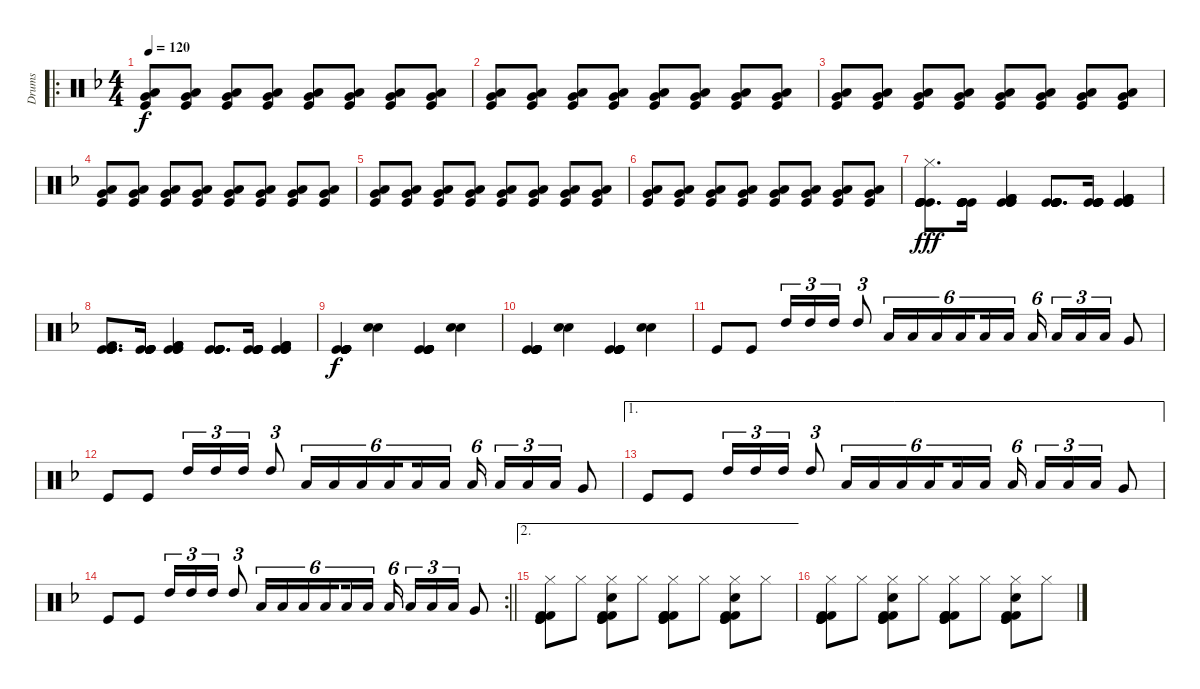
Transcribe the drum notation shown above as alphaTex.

\track ("Drums" "Drums") {instrument percussion}
\staff {score}
\articulation defaults
\ro
\ts (4 4)
\tempo 120
\clef neutral
\ks f
("Very Low Tom (hit)" "Kick (hit)" "Low Tom (hit)").8{dy f} ("Very Low Tom (hit)" "Kick (hit)" "Low Tom (hit)").8 ("Very Low Tom (hit)" "Kick (hit)" "Low Tom (hit)").8 ("Very Low Tom (hit)" "Kick (hit)" "Low Tom (hit)").8 ("Very Low Tom (hit)" "Kick (hit)" "Low Tom (hit)").8 ("Very Low Tom (hit)" "Kick (hit)" "Low Tom (hit)").8 ("Very Low Tom (hit)" "Kick (hit)" "Low Tom (hit)").8 ("Very Low Tom (hit)" "Kick (hit)" "Low Tom (hit)").8 |
("Very Low Tom (hit)" "Kick (hit)" "Low Tom (hit)").8 ("Very Low Tom (hit)" "Kick (hit)" "Low Tom (hit)").8 ("Very Low Tom (hit)" "Kick (hit)" "Low Tom (hit)").8 ("Very Low Tom (hit)" "Kick (hit)" "Low Tom (hit)").8 ("Very Low Tom (hit)" "Kick (hit)" "Low Tom (hit)").8 ("Very Low Tom (hit)" "Kick (hit)" "Low Tom (hit)").8 ("Very Low Tom (hit)" "Kick (hit)" "Low Tom (hit)").8 ("Very Low Tom (hit)" "Kick (hit)" "Low Tom (hit)").8 |
("Very Low Tom (hit)" "Kick (hit)" "Low Tom (hit)").8 ("Very Low Tom (hit)" "Kick (hit)" "Low Tom (hit)").8 ("Very Low Tom (hit)" "Kick (hit)" "Low Tom (hit)").8 ("Very Low Tom (hit)" "Kick (hit)" "Low Tom (hit)").8 ("Very Low Tom (hit)" "Kick (hit)" "Low Tom (hit)").8 ("Very Low Tom (hit)" "Kick (hit)" "Low Tom (hit)").8 ("Very Low Tom (hit)" "Kick (hit)" "Low Tom (hit)").8 ("Very Low Tom (hit)" "Kick (hit)" "Low Tom (hit)").8 |
("Very Low Tom (hit)" "Kick (hit)" "Low Tom (hit)").8 ("Very Low Tom (hit)" "Kick (hit)" "Low Tom (hit)").8 ("Very Low Tom (hit)" "Kick (hit)" "Low Tom (hit)").8 ("Very Low Tom (hit)" "Kick (hit)" "Low Tom (hit)").8 ("Very Low Tom (hit)" "Kick (hit)" "Low Tom (hit)").8 ("Very Low Tom (hit)" "Kick (hit)" "Low Tom (hit)").8 ("Very Low Tom (hit)" "Kick (hit)" "Low Tom (hit)").8 ("Very Low Tom (hit)" "Kick (hit)" "Low Tom (hit)").8 |
("Very Low Tom (hit)" "Kick (hit)" "Low Tom (hit)").8 ("Very Low Tom (hit)" "Kick (hit)" "Low Tom (hit)").8 ("Very Low Tom (hit)" "Kick (hit)" "Low Tom (hit)").8 ("Very Low Tom (hit)" "Kick (hit)" "Low Tom (hit)").8 ("Very Low Tom (hit)" "Kick (hit)" "Low Tom (hit)").8 ("Very Low Tom (hit)" "Kick (hit)" "Low Tom (hit)").8 ("Very Low Tom (hit)" "Kick (hit)" "Low Tom (hit)").8 ("Very Low Tom (hit)" "Kick (hit)" "Low Tom (hit)").8 |
("Very Low Tom (hit)" "Kick (hit)" "Low Tom (hit)").8 ("Very Low Tom (hit)" "Kick (hit)" "Low Tom (hit)").8 ("Very Low Tom (hit)" "Kick (hit)" "Low Tom (hit)").8 ("Very Low Tom (hit)" "Kick (hit)" "Low Tom (hit)").8 ("Very Low Tom (hit)" "Kick (hit)" "Low Tom (hit)").8 ("Very Low Tom (hit)" "Kick (hit)" "Low Tom (hit)").8 ("Very Low Tom (hit)" "Kick (hit)" "Low Tom (hit)").8 ("Very Low Tom (hit)" "Kick (hit)" "Low Tom (hit)").8 |
("Hi-Hat (closed)" "Kick (hit)" "Kick (hit)" "Kick (hit)" "Kick (hit)" "Kick (hit)").8{d dy fff} ("Kick (hit)" "Kick (hit)" "Kick (hit)" "Kick (hit)" "Kick (hit)" "Kick (hit)").16 ("Kick (hit)" "Kick (hit) 2" "Kick (hit)" "Kick (hit) 2" "Kick (hit)" "Kick (hit) 2").4 ("Kick (hit)" "Kick (hit)" "Kick (hit)" "Kick (hit)" "Kick (hit)" "Kick (hit)").8{d} ("Kick (hit)" "Kick (hit)" "Kick (hit)" "Kick (hit)" "Kick (hit)" "Kick (hit)").16 ("Kick (hit)" "Kick (hit) 2" "Kick (hit)" "Kick (hit) 2" "Kick (hit)" "Kick (hit) 2").4 |
("Kick (hit) 2" "Kick (hit)" "Kick (hit)" "Kick (hit)" "Kick (hit)" "Kick (hit)").8{d} ("Kick (hit)" "Kick (hit)" "Kick (hit)" "Kick (hit)" "Kick (hit)" "Kick (hit)").16 ("Kick (hit)" "Kick (hit) 2" "Kick (hit)" "Kick (hit) 2" "Kick (hit)" "Kick (hit) 2").4 ("Kick (hit)" "Kick (hit)" "Kick (hit)" "Kick (hit)" "Kick (hit)" "Kick (hit)").8{d} ("Kick (hit)" "Kick (hit)" "Kick (hit)" "Kick (hit)" "Kick (hit)" "Kick (hit)").16 ("Kick (hit)" "Kick (hit) 2" "Kick (hit)" "Kick (hit) 2" "Kick (hit)" "Kick (hit) 2").4 |
("Kick (hit)" "Kick (hit)" "Kick (hit)" "Kick (hit)" "Kick (hit)" "Kick (hit)").4{dy f} ("Snare (hit) 2" "Snare (hit) 2").4 ("Kick (hit)" "Kick (hit)" "Kick (hit)" "Kick (hit)" "Kick (hit)" "Kick (hit)").4 ("Snare (hit) 2" "Snare (hit) 2").4 |
("Kick (hit)" "Kick (hit)" "Kick (hit)" "Kick (hit)" "Kick (hit)" "Kick (hit)").4 ("Snare (hit) 2" "Snare (hit) 2").4 ("Kick (hit)" "Kick (hit)" "Kick (hit)" "Kick (hit)" "Kick (hit)" "Kick (hit)").4 ("Snare (hit) 2" "Snare (hit) 2").4 |
"Kick (hit)".8 "Kick (hit)".8 "High Tom (hit)".16{tu (3 2) beam Up} "High Tom (hit)".16{tu (3 2) beam Up} "High Tom (hit)".16{tu (3 2) beam Up} "High Tom (hit)".8{tu (3 2) beam Up} "Low Tom (hit)".16{tu (6 4) beam Up} "Low Tom (hit)".16{tu (6 4)} "Low Tom (hit)".16{tu (6 4)} "Low Tom (hit)".16{tu (6 4) beam splitsecondary} "Low Tom (hit)".16{tu (6 4)} "Low Tom (hit)".16{tu (6 4)} "Low Tom (hit)".16{tu (6 4)} "Low Tom (hit)".16{tu (3 2)} "Low Tom (hit)".16{tu (3 2)} "Low Tom (hit)".16{tu (3 2)} "Very Low Tom (hit)".8 |
"Kick (hit)".8 "Kick (hit)".8 "High Tom (hit)".16{tu (3 2) beam Up} "High Tom (hit)".16{tu (3 2) beam Up} "High Tom (hit)".16{tu (3 2) beam Up} "High Tom (hit)".8{tu (3 2) beam Up} "Low Tom (hit)".16{tu (6 4) beam Up} "Low Tom (hit)".16{tu (6 4)} "Low Tom (hit)".16{tu (6 4)} "Low Tom (hit)".16{tu (6 4) beam splitsecondary} "Low Tom (hit)".16{tu (6 4)} "Low Tom (hit)".16{tu (6 4)} "Low Tom (hit)".16{tu (6 4)} "Low Tom (hit)".16{tu (3 2)} "Low Tom (hit)".16{tu (3 2)} "Low Tom (hit)".16{tu (3 2)} "Very Low Tom (hit)".8 |
\ae 1 "Kick (hit)".8 "Kick (hit)".8 "High Tom (hit)".16{tu (3 2) beam Up} "High Tom (hit)".16{tu (3 2) beam Up} "High Tom (hit)".16{tu (3 2) beam Up} "High Tom (hit)".8{tu (3 2) beam Up} "Low Tom (hit)".16{tu (6 4) beam Up} "Low Tom (hit)".16{tu (6 4)} "Low Tom (hit)".16{tu (6 4)} "Low Tom (hit)".16{tu (6 4) beam splitsecondary} "Low Tom (hit)".16{tu (6 4)} "Low Tom (hit)".16{tu (6 4)} "Low Tom (hit)".16{tu (6 4)} "Low Tom (hit)".16{tu (3 2)} "Low Tom (hit)".16{tu (3 2)} "Low Tom (hit)".16{tu (3 2)} "Very Low Tom (hit)".8
|
\rc 2
\barLineRight lightlight "Kick (hit)".8 "Kick (hit)".8 "High Tom (hit)".16{tu (3 2) beam Up} "High Tom (hit)".16{tu (3 2) beam Up} "High Tom (hit)".16{tu (3 2) beam Up} "High Tom (hit)".8{tu (3 2) beam Up} "Low Tom (hit)".16{tu (6 4) beam Up} "Low Tom (hit)".16{tu (6 4)} "Low Tom (hit)".16{tu (6 4)} "Low Tom (hit)".16{tu (6 4) beam splitsecondary} "Low Tom (hit)".16{tu (6 4)} "Low Tom (hit)".16{tu (6 4)} "Low Tom (hit)".16{tu (6 4)} "Low Tom (hit)".16{tu (3 2)} "Low Tom (hit)".16{tu (3 2)} "Low Tom (hit)".16{tu (3 2)} "Very Low Tom (hit)".8
|
\ae 2
("Hi-Hat (closed)" "Kick (hit) 2" "Kick (hit) 2" "Kick (hit)" "Kick (hit)" "Kick (hit)").8 "Hi-Hat (closed)".8 ("Hi-Hat (closed)" "Snare (hit) 2" "Kick (hit) 2" "Kick (hit)" "Kick (hit) 2" "Kick (hit)").8 "Hi-Hat (closed)".8 ("Hi-Hat (closed)" "Kick (hit) 2" "Kick (hit) 2" "Kick (hit) 2" "Kick (hit)" "Kick (hit)").8 "Hi-Hat (closed)".8 ("Hi-Hat (closed)" "Snare (hit) 2" "Kick (hit) 2" "Kick (hit) 2" "Kick (hit)" "Kick (hit)").8 "Hi-Hat (closed)".8 |
("Hi-Hat (closed)" "Kick (hit) 2" "Kick (hit) 2" "Kick (hit)" "Kick (hit)" "Kick (hit)").8 "Hi-Hat (closed)".8 ("Hi-Hat (closed)" "Snare (hit) 2" "Kick (hit) 2" "Kick (hit)" "Kick (hit) 2" "Kick (hit)").8 "Hi-Hat (closed)".8 ("Hi-Hat (closed)" "Kick (hit) 2" "Kick (hit) 2" "Kick (hit) 2" "Kick (hit)" "Kick (hit)").8 "Hi-Hat (closed)".8 ("Hi-Hat (closed)" "Snare (hit) 2" "Kick (hit) 2" "Kick (hit) 2" "Kick (hit)" "Kick (hit)").8 "Hi-Hat (closed)".8
